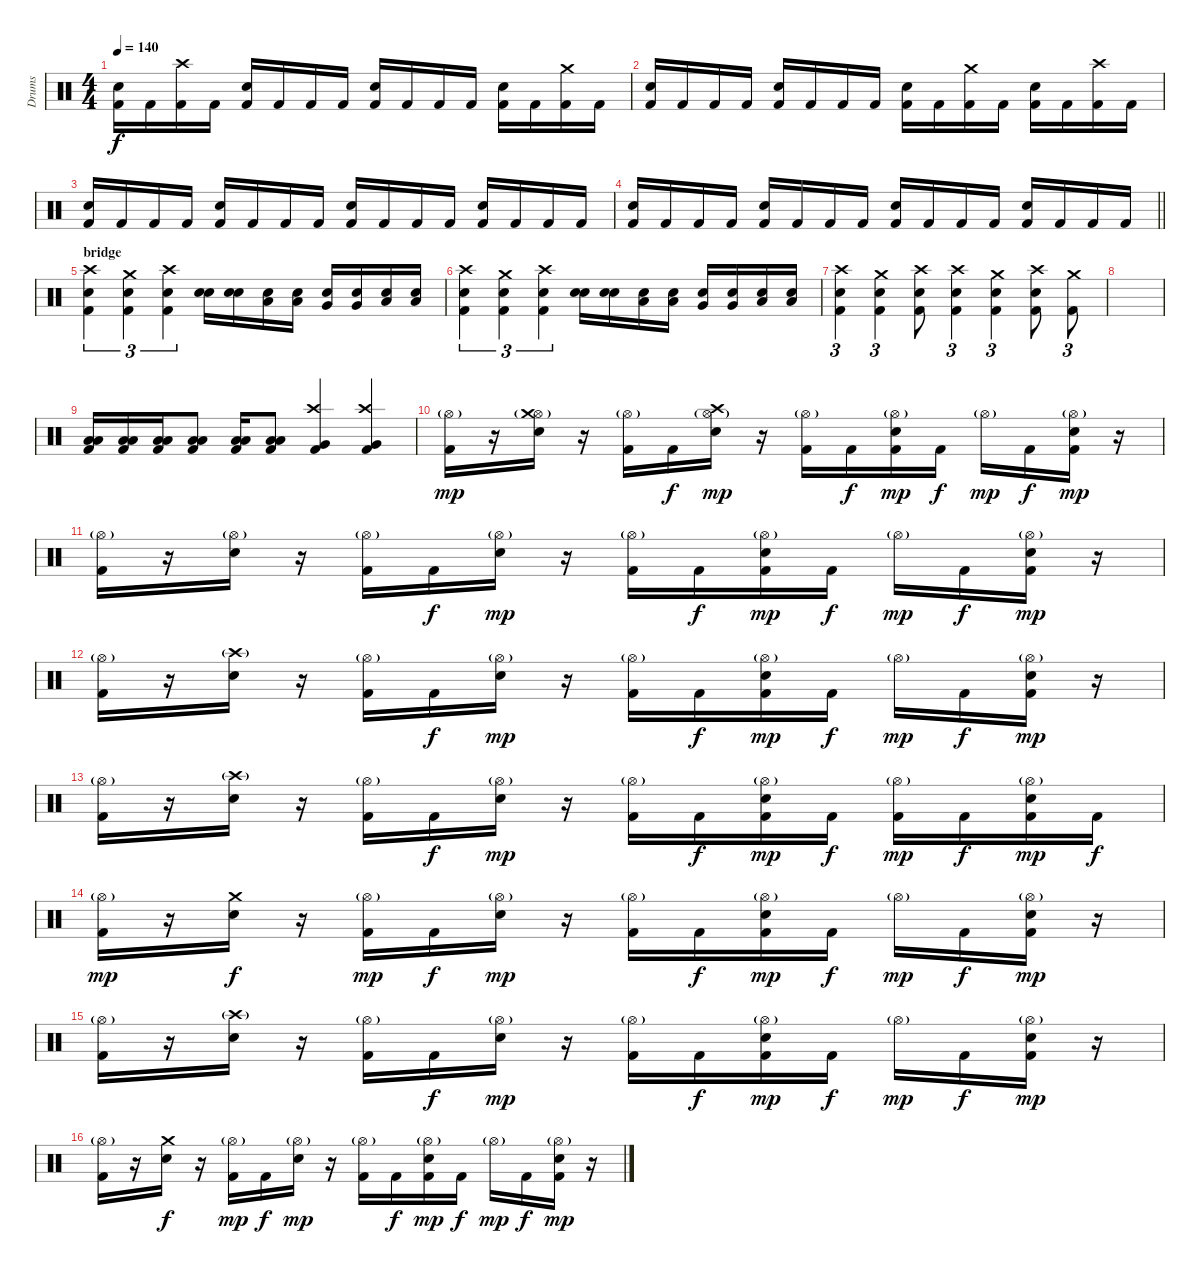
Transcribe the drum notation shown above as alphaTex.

\track ("Drums" "Drums") {instrument percussion}
\staff {score}
\articulation defaults
\ts (4 4)
\tempo 140
\clef neutral
\ks c
("Electric Snare (hit)" "Kick (hit) 2").16{dy f} "Kick (hit) 2".16 ("Crash high (hit)" "Kick (hit) 2").16 "Kick (hit) 2".16 ("Electric Snare (hit)" "Kick (hit) 2").16 "Kick (hit) 2".16 "Kick (hit) 2".16 "Kick (hit) 2".16 ("Electric Snare (hit)" "Kick (hit) 2").16 "Kick (hit) 2".16 "Kick (hit) 2".16 "Kick (hit) 2".16 ("Electric Snare (hit)" "Kick (hit) 2").16 "Kick (hit) 2".16 ("Crash medium (hit)" "Kick (hit) 2").16 "Kick (hit) 2".16 |
("Electric Snare (hit)" "Kick (hit) 2").16 "Kick (hit) 2".16 "Kick (hit) 2".16 "Kick (hit) 2".16 ("Electric Snare (hit)" "Kick (hit) 2").16 "Kick (hit) 2".16 "Kick (hit) 2".16 "Kick (hit) 2".16 ("Electric Snare (hit)" "Kick (hit) 2").16 "Kick (hit) 2".16 ("Crash medium (hit)" "Kick (hit) 2").16 "Kick (hit) 2".16 ("Electric Snare (hit)" "Kick (hit) 2").16 "Kick (hit) 2".16 ("Crash high (hit)" "Kick (hit) 2").16 "Kick (hit) 2".16 |
("Electric Snare (hit)" "Kick (hit) 2").16 "Kick (hit) 2".16 "Kick (hit) 2".16 "Kick (hit) 2".16 ("Electric Snare (hit)" "Kick (hit) 2").16 "Kick (hit) 2".16 "Kick (hit) 2".16 "Kick (hit) 2".16 ("Electric Snare (hit)" "Kick (hit) 2").16 "Kick (hit) 2".16 "Kick (hit) 2".16 "Kick (hit) 2".16 ("Electric Snare (hit)" "Kick (hit) 2").16 "Kick (hit) 2".16 "Kick (hit) 2".16 "Kick (hit) 2".16 |
\barLineRight lightlight
("Electric Snare (hit)" "Kick (hit) 2").16 "Kick (hit) 2".16 "Kick (hit) 2".16 "Kick (hit) 2".16 ("Electric Snare (hit)" "Kick (hit) 2").16 "Kick (hit) 2".16 "Kick (hit) 2".16 "Kick (hit) 2".16 ("Electric Snare (hit)" "Kick (hit) 2").16 "Kick (hit) 2".16 "Kick (hit) 2".16 "Kick (hit) 2".16 ("Electric Snare (hit)" "Kick (hit) 2").16 "Kick (hit) 2".16 "Kick (hit) 2".16 "Kick (hit) 2".16 |
\section ("" "bridge")
("Crash high (hit)" "Electric Snare (hit)" "Kick (hit) 2").4{tu (3 2)} ("Crash medium (hit)" "Electric Snare (hit)" "Kick (hit) 2").4{tu (3 2)} ("Crash high (hit)" "Electric Snare (hit)" "Kick (hit) 2").4{tu (3 2)} ("Electric Snare (hit)" "Snare (hit) 2").16 ("Electric Snare (hit)" "Snare (hit) 2").16 ("Electric Snare (hit)" "Low Floor Tom (hit)").16 ("Electric Snare (hit)" "Low Floor Tom (hit)").16 ("Electric Snare (hit)" "Very Low Tom (hit)").16 ("Electric Snare (hit)" "Very Low Tom (hit)").16 ("Electric Snare (hit)" "Low Tom (hit)").16 ("Electric Snare (hit)" "Low Tom (hit)").16 |
("Crash high (hit)" "Electric Snare (hit)" "Kick (hit) 2").4{tu (3 2)} ("Crash medium (hit)" "Electric Snare (hit)" "Kick (hit) 2").4{tu (3 2)} ("Crash high (hit)" "Electric Snare (hit)" "Kick (hit) 2").4{tu (3 2)} ("Electric Snare (hit)" "Snare (hit) 2").16 ("Electric Snare (hit)" "Snare (hit) 2").16 ("Electric Snare (hit)" "Low Floor Tom (hit)").16 ("Electric Snare (hit)" "Low Floor Tom (hit)").16 ("Electric Snare (hit)" "Very Low Tom (hit)").16 ("Electric Snare (hit)" "Very Low Tom (hit)").16 ("Electric Snare (hit)" "Low Tom (hit)").16 ("Electric Snare (hit)" "Low Tom (hit)").16 |
("Crash high (hit)" "Electric Snare (hit)" "Kick (hit) 2").4{tu (3 2)} ("Crash medium (hit)" "Electric Snare (hit)" "Kick (hit) 2").4{tu (3 2)} ("Crash high (hit)" "Electric Snare (hit)" "Kick (hit) 2").8 ("Crash high (hit)" "Electric Snare (hit)" "Kick (hit) 2").4{tu (3 2)} ("Crash medium (hit)" "Electric Snare (hit)" "Kick (hit) 2").4{tu (3 2)} ("Crash high (hit)" "Electric Snare (hit)" "Kick (hit) 2").8 ("Crash medium (hit)" "Kick (hit) 2").8{tu (3 2)} |
|
("Low Tom (hit)" "Low Tom (hit)" "Kick (hit) 2").16 ("Low Tom (hit)" "Low Tom (hit)" "Kick (hit) 2").16 ("Low Tom (hit)" "Low Tom (hit)" "Kick (hit) 2").16 ("Low Tom (hit)" "Low Tom (hit)" "Kick (hit) 2").8 ("Low Tom (hit)" "Low Tom (hit)" "Kick (hit) 2").16 ("Low Tom (hit)" "Low Tom (hit)" "Kick (hit) 2").8 ("Crash high (hit)" "Very Low Tom (hit)" "Kick (hit) 2").4 ("Crash high (hit)" "Very Low Tom (hit)" "Kick (hit) 2").4 |
("Hi-Hat (open)"{g} "Kick (hit) 2").16{dy mp volume 12} r.16 ("Hi-Hat (open)"{g} "Electric Snare (hit)" "Crash medium (hit)").16 r.16 ("Hi-Hat (open)"{g} "Kick (hit) 2").16 "Kick (hit) 2".16{dy f} ("Hi-Hat (open)"{g} "Electric Snare (hit)" "Crash high (hit)").16{dy mp} r.16 ("Hi-Hat (open)"{g} "Kick (hit) 2").16 "Kick (hit) 2".16{dy f} ("Hi-Hat (open)"{g} "Electric Snare (hit)" "Kick (hit) 2").16{dy mp} "Kick (hit) 2".16{dy f} "Hi-Hat (open)"{g}.16{dy mp} "Kick (hit) 2".16{dy f} ("Hi-Hat (open)"{g} "Electric Snare (hit)" "Kick (hit) 2").16{dy mp} r.16 |
("Hi-Hat (open)"{g} "Kick (hit) 2").16 r.16 ("Hi-Hat (open)"{g} "Electric Snare (hit)").16 r.16 ("Hi-Hat (open)"{g} "Kick (hit) 2").16 "Kick (hit) 2".16{dy f} ("Hi-Hat (open)"{g} "Electric Snare (hit)").16{dy mp} r.16 ("Hi-Hat (open)"{g} "Kick (hit) 2").16 "Kick (hit) 2".16{dy f} ("Hi-Hat (open)"{g} "Electric Snare (hit)" "Kick (hit) 2").16{dy mp} "Kick (hit) 2".16{dy f} "Hi-Hat (open)"{g}.16{dy mp} "Kick (hit) 2".16{dy f} ("Hi-Hat (open)"{g} "Electric Snare (hit)" "Kick (hit) 2").16{dy mp} r.16 |
("Hi-Hat (open)"{g} "Kick (hit) 2").16 r.16 ("Crash high (hit)"{g} "Electric Snare (hit)").16 r.16 ("Hi-Hat (open)"{g} "Kick (hit) 2").16 "Kick (hit) 2".16{dy f} ("Hi-Hat (open)"{g} "Electric Snare (hit)").16{dy mp} r.16 ("Hi-Hat (open)"{g} "Kick (hit) 2").16 "Kick (hit) 2".16{dy f} ("Hi-Hat (open)"{g} "Electric Snare (hit)" "Kick (hit) 2").16{dy mp} "Kick (hit) 2".16{dy f} "Hi-Hat (open)"{g}.16{dy mp} "Kick (hit) 2".16{dy f} ("Hi-Hat (open)"{g} "Electric Snare (hit)" "Kick (hit) 2").16{dy mp} r.16 |
("Hi-Hat (open)"{g} "Kick (hit) 2").16 r.16 ("Crash high (hit)"{g} "Electric Snare (hit)").16 r.16 ("Hi-Hat (open)"{g} "Kick (hit) 2").16 "Kick (hit) 2".16{dy f} ("Hi-Hat (open)"{g} "Electric Snare (hit)").16{dy mp} r.16 ("Hi-Hat (open)"{g} "Kick (hit) 2").16 "Kick (hit) 2".16{dy f} ("Hi-Hat (open)"{g} "Electric Snare (hit)" "Kick (hit) 2").16{dy mp} "Kick (hit) 2".16{dy f} ("Hi-Hat (open)"{g} "Kick (hit) 2").16{dy mp} "Kick (hit) 2".16{dy f} ("Hi-Hat (open)"{g} "Electric Snare (hit)" "Kick (hit) 2").16{dy mp} "Kick (hit) 2".16{dy f} |
("Hi-Hat (open)"{g} "Kick (hit) 2").16{dy mp} r.16 ("Crash medium (hit)" "Electric Snare (hit)").16{dy f} r.16 ("Hi-Hat (open)"{g} "Kick (hit) 2").16{dy mp} "Kick (hit) 2".16{dy f} ("Hi-Hat (open)"{g} "Electric Snare (hit)").16{dy mp} r.16 ("Hi-Hat (open)"{g} "Kick (hit) 2").16 "Kick (hit) 2".16{dy f} ("Hi-Hat (open)"{g} "Electric Snare (hit)" "Kick (hit) 2").16{dy mp} "Kick (hit) 2".16{dy f} "Hi-Hat (open)"{g}.16{dy mp} "Kick (hit) 2".16{dy f} ("Hi-Hat (open)"{g} "Electric Snare (hit)" "Kick (hit) 2").16{dy mp} r.16 |
("Hi-Hat (open)"{g} "Kick (hit) 2").16 r.16 ("Crash high (hit)"{g} "Electric Snare (hit)").16 r.16 ("Hi-Hat (open)"{g} "Kick (hit) 2").16 "Kick (hit) 2".16{dy f} ("Hi-Hat (open)"{g} "Electric Snare (hit)").16{dy mp} r.16 ("Hi-Hat (open)"{g} "Kick (hit) 2").16 "Kick (hit) 2".16{dy f} ("Hi-Hat (open)"{g} "Electric Snare (hit)" "Kick (hit) 2").16{dy mp} "Kick (hit) 2".16{dy f} "Hi-Hat (open)"{g}.16{dy mp} "Kick (hit) 2".16{dy f} ("Hi-Hat (open)"{g} "Electric Snare (hit)" "Kick (hit) 2").16{dy mp} r.16 |
("Hi-Hat (open)"{g} "Kick (hit) 2").16 r.16 ("Crash medium (hit)" "Electric Snare (hit)").16{dy f} r.16 ("Hi-Hat (open)"{g} "Kick (hit) 2").16{dy mp} "Kick (hit) 2".16{dy f} ("Hi-Hat (open)"{g} "Electric Snare (hit)").16{dy mp} r.16 ("Hi-Hat (open)"{g} "Kick (hit) 2").16 "Kick (hit) 2".16{dy f} ("Hi-Hat (open)"{g} "Electric Snare (hit)" "Kick (hit) 2").16{dy mp} "Kick (hit) 2".16{dy f} "Hi-Hat (open)"{g}.16{dy mp} "Kick (hit) 2".16{dy f} ("Hi-Hat (open)"{g} "Electric Snare (hit)" "Kick (hit) 2").16{dy mp} r.16
